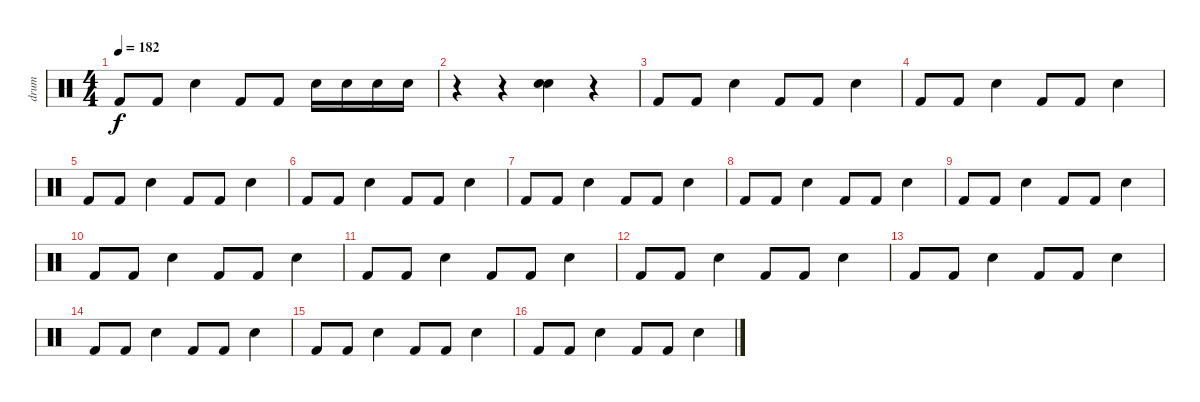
\track ("drum" "drum") {instrument percussion}
\staff {score}
\articulation defaults
\ts (4 4)
\tempo 182
\clef neutral
\ks c "Kick (hit) 2".8{dy f} "Kick (hit) 2".8 "Electric Snare (hit)".4 "Kick (hit) 2".8 "Kick (hit) 2".8 "Electric Snare (hit)".16 "Electric Snare (hit)".16 "Electric Snare (hit)".16 "Electric Snare (hit)".16
|
r.4 r.4 ("Electric Snare (hit)" "Electric Snare (hit)").4 r.4 |
"Kick (hit) 2".8 "Kick (hit) 2".8 "Electric Snare (hit)".4 "Kick (hit) 2".8 "Kick (hit) 2".8 "Electric Snare (hit)".4 |
"Kick (hit) 2".8 "Kick (hit) 2".8 "Electric Snare (hit)".4 "Kick (hit) 2".8 "Kick (hit) 2".8 "Electric Snare (hit)".4 |
"Kick (hit) 2".8 "Kick (hit) 2".8 "Electric Snare (hit)".4 "Kick (hit) 2".8 "Kick (hit) 2".8 "Electric Snare (hit)".4 |
"Kick (hit) 2".8 "Kick (hit) 2".8 "Electric Snare (hit)".4 "Kick (hit) 2".8 "Kick (hit) 2".8 "Electric Snare (hit)".4 |
"Kick (hit) 2".8 "Kick (hit) 2".8 "Electric Snare (hit)".4 "Kick (hit) 2".8 "Kick (hit) 2".8 "Electric Snare (hit)".4 |
"Kick (hit) 2".8 "Kick (hit) 2".8 "Electric Snare (hit)".4 "Kick (hit) 2".8 "Kick (hit) 2".8 "Electric Snare (hit)".4 |
"Kick (hit) 2".8 "Kick (hit) 2".8 "Electric Snare (hit)".4 "Kick (hit) 2".8 "Kick (hit) 2".8 "Electric Snare (hit)".4 |
"Kick (hit) 2".8 "Kick (hit) 2".8 "Electric Snare (hit)".4 "Kick (hit) 2".8 "Kick (hit) 2".8 "Electric Snare (hit)".4 |
"Kick (hit) 2".8 "Kick (hit) 2".8 "Electric Snare (hit)".4 "Kick (hit) 2".8 "Kick (hit) 2".8 "Electric Snare (hit)".4 |
"Kick (hit) 2".8 "Kick (hit) 2".8 "Electric Snare (hit)".4 "Kick (hit) 2".8 "Kick (hit) 2".8 "Electric Snare (hit)".4 |
"Kick (hit) 2".8 "Kick (hit) 2".8 "Electric Snare (hit)".4 "Kick (hit) 2".8 "Kick (hit) 2".8 "Electric Snare (hit)".4 |
"Kick (hit) 2".8 "Kick (hit) 2".8 "Electric Snare (hit)".4 "Kick (hit) 2".8 "Kick (hit) 2".8 "Electric Snare (hit)".4 |
"Kick (hit) 2".8 "Kick (hit) 2".8 "Electric Snare (hit)".4 "Kick (hit) 2".8 "Kick (hit) 2".8 "Electric Snare (hit)".4 |
"Kick (hit) 2".8 "Kick (hit) 2".8 "Electric Snare (hit)".4 "Kick (hit) 2".8 "Kick (hit) 2".8 "Electric Snare (hit)".4
